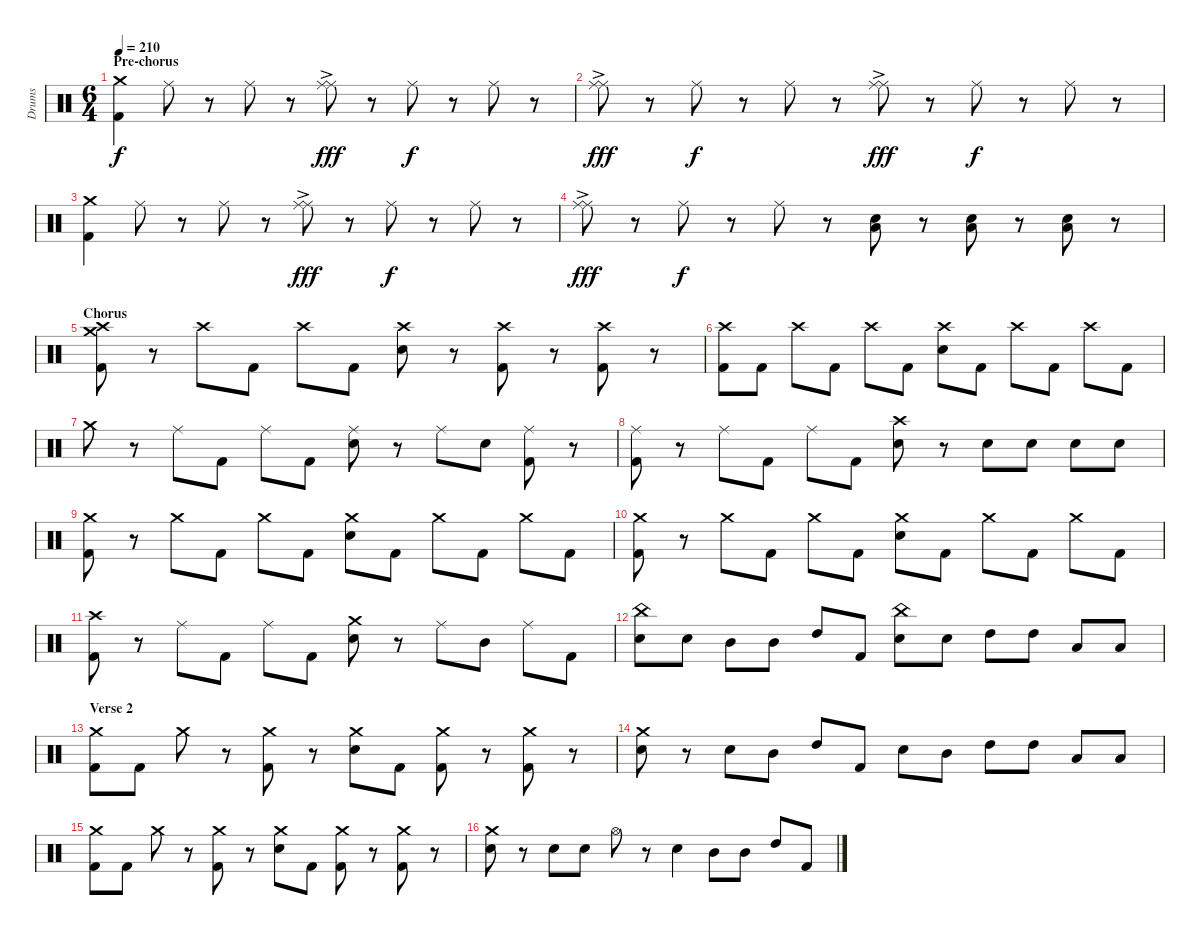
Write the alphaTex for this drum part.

\track ("Drums" "Drums") {instrument percussion}
\staff {score}
\articulation defaults
\ts (6 4)
\section ("" "Pre-chorus")
\tempo 210
\clef neutral
\ks c
("Crash medium (hit)" "Kick (hit) 2").4{dy f} "Ride (middle)".8 r.8 "Ride (middle)".8 r.8 ("Ride (middle)"{ac} "Ride (middle)").8{dy fff} r.8 "Ride (middle)".8{dy f} r.8 "Ride (middle)".8 r.8 |
("Ride (middle)"{ac} "Ride (middle)").8{dy fff} r.8 "Ride (middle)".8{dy f} r.8 "Ride (middle)".8 r.8 ("Ride (middle)"{ac} "Ride (middle)").8{dy fff} r.8 "Ride (middle)".8{dy f} r.8 "Ride (middle)".8 r.8 |
("Crash medium (hit)" "Kick (hit) 2").4 "Ride (middle)".8 r.8 "Ride (middle)".8 r.8 ("Ride (middle)"{ac} "Ride (middle)").8{dy fff} r.8 "Ride (middle)".8{dy f} r.8 "Ride (middle)".8 r.8 |
("Ride (middle)"{ac} "Ride (middle)").8{dy fff} r.8 "Ride (middle)".8{dy f} r.8 "Ride (middle)".8 r.8 ("Electric Snare (hit)" "Low Floor Tom (hit)").8 r.8 ("Electric Snare (hit)" "Low Floor Tom (hit)").8 r.8 ("Electric Snare (hit)" "Low Floor Tom (hit)").8 r.8 |
\section ("" "Chorus")
("Crash medium (hit)" "Crash high (hit)" "Kick (hit) 2").8 r.8 "Crash high (hit)".8 "Kick (hit) 2".8 "Crash high (hit)".8 "Kick (hit) 2".8 ("Crash high (hit)" "Electric Snare (hit)").8 r.8 ("Crash high (hit)" "Kick (hit) 2").8 r.8 ("Crash high (hit)" "Kick (hit) 2").8 r.8 |
("Crash high (hit)" "Kick (hit) 2").8 "Kick (hit) 2".8 "Crash high (hit)".8 "Kick (hit) 2".8 "Crash high (hit)".8 "Kick (hit) 2".8 ("Crash high (hit)" "Electric Snare (hit)").8 "Kick (hit) 2".8 "Crash high (hit)".8 "Kick (hit) 2".8 "Crash high (hit)".8 "Kick (hit) 2".8 |
"Crash medium (hit)".8 r.8 "Ride (middle)".8 "Kick (hit) 2".8 "Ride (middle)".8 "Kick (hit) 2".8 ("Ride (middle)" "Electric Snare (hit)").8 r.8 "Ride (middle)".8 "Electric Snare (hit)".8 ("Ride (middle)" "Kick (hit) 2").8 r.8 |
("Ride (middle)" "Kick (hit) 2").8 r.8 "Ride (middle)".8 "Kick (hit) 2".8 "Ride (middle)".8 "Kick (hit) 2".8 ("Crash high (hit)" "Electric Snare (hit)").8 r.8 "Electric Snare (hit)".8 "Electric Snare (hit)".8 "Electric Snare (hit)".8 "Electric Snare (hit)".8 |
("Crash medium (hit)" "Kick (hit) 2").8 r.8 "Crash medium (hit)".8 "Kick (hit) 2".8 "Crash medium (hit)".8 "Kick (hit) 2".8 ("Crash medium (hit)" "Electric Snare (hit)").8 "Kick (hit) 2".8 "Crash medium (hit)".8 "Kick (hit) 2".8 "Crash medium (hit)".8 "Kick (hit) 2".8 |
("Crash medium (hit)" "Kick (hit) 2").8 r.8 "Crash medium (hit)".8 "Kick (hit) 2".8 "Crash medium (hit)".8 "Kick (hit) 2".8 ("Crash medium (hit)" "Electric Snare (hit)").8 "Kick (hit) 2".8 "Crash medium (hit)".8 "Kick (hit) 2".8 "Crash medium (hit)".8 "Kick (hit) 2".8 |
("Crash high (hit)" "Kick (hit) 2").8 r.8 "Ride (middle)".8 "Kick (hit) 2".8 "Ride (middle)".8 "Kick (hit) 2".8 ("Crash medium (hit)" "Electric Snare (hit)").8 r.8 "Ride (middle)".8 "Mid Tom (hit)".8 "Ride (middle)".8 "Kick (hit) 2".8 |
("China (hit)" "Electric Snare (hit)").8 "Electric Snare (hit)".8 "Mid Tom (hit)".8 "Mid Tom (hit)".8 "High Tom (hit)".8 "Kick (hit) 2".8 ("China (hit)" "Electric Snare (hit)").8 "Electric Snare (hit)".8 "High Tom (hit)".8 "High Tom (hit)".8 "Low Floor Tom (hit)".8 "Low Floor Tom (hit)".8 |
\section ("" "Verse 2")
("Crash medium (hit)" "Kick (hit) 2").8 "Kick (hit) 2".8 "Crash medium (hit)".8 r.8 ("Crash medium (hit)" "Kick (hit) 2").8 r.8 ("Crash medium (hit)" "Electric Snare (hit)").8 "Kick (hit) 2".8 ("Crash medium (hit)" "Kick (hit) 2").8 r.8 ("Crash medium (hit)" "Kick (hit) 2").8 r.8 |
("Crash medium (hit)" "Electric Snare (hit)").8 r.8 "Electric Snare (hit)".8 "Mid Tom (hit)".8 "High Tom (hit)".8 "Kick (hit) 2".8 "Electric Snare (hit)".8 "Mid Tom (hit)".8 "High Tom (hit)".8 "High Tom (hit)".8 "Low Floor Tom (hit)".8 "Low Floor Tom (hit)".8 |
("Crash medium (hit)" "Kick (hit) 2").8 "Kick (hit) 2".8 "Crash medium (hit)".8 r.8 ("Crash medium (hit)" "Kick (hit) 2").8 r.8 ("Crash medium (hit)" "Electric Snare (hit)").8 "Kick (hit) 2".8 ("Crash medium (hit)" "Kick (hit) 2").8 r.8 ("Crash medium (hit)" "Kick (hit) 2").8 r.8 |
("Crash medium (hit)" "Electric Snare (hit)").8 r.8 "Electric Snare (hit)".8 "Electric Snare (hit)".8 "Hi-Hat (open)".8 r.8 "Electric Snare (hit)".4 "Mid Tom (hit)".8 "Mid Tom (hit)".8 "High Tom (hit)".8 "Kick (hit) 2".8
